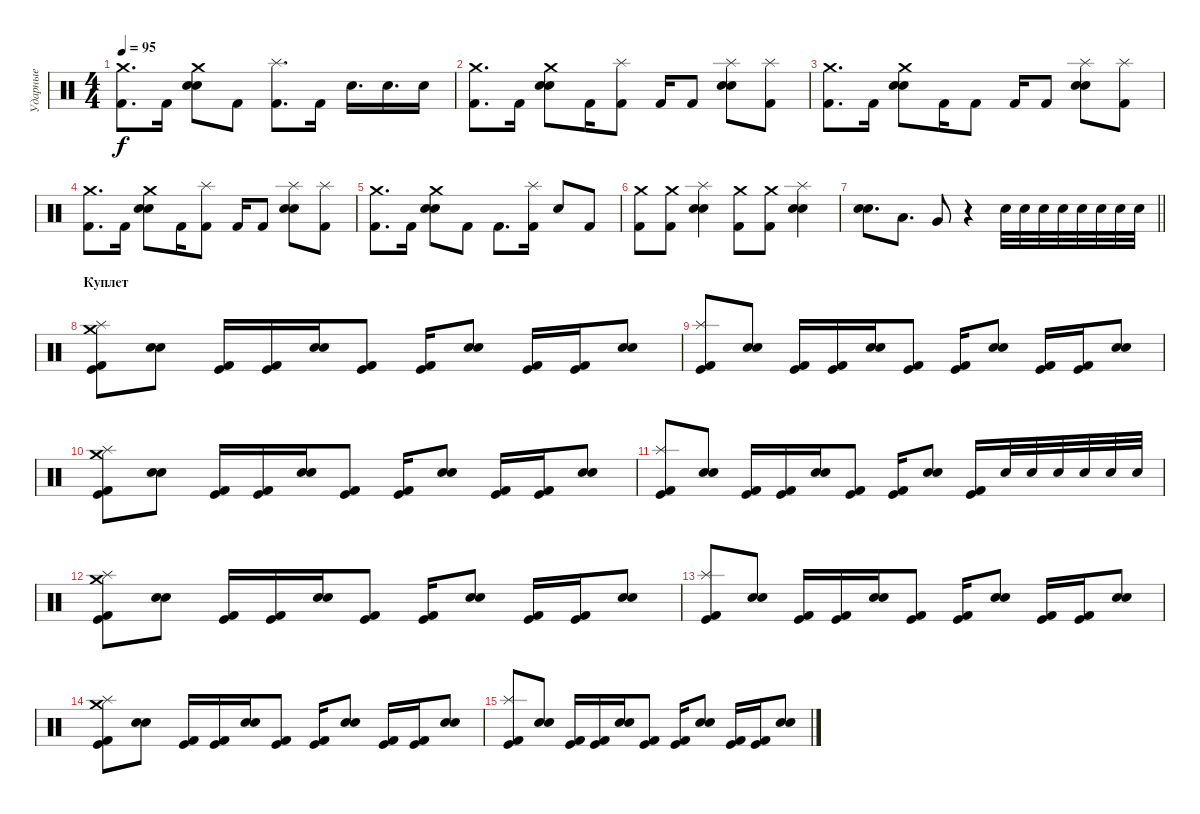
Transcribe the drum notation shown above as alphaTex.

\track ("Ударные" "Ударные") {instrument percussion}
\staff {score}
\articulation defaults
\ts (4 4)
\tempo 95
\clef neutral
\ks c
("Crash medium (hit)" "Kick (hit) 2").8{d dy f} "Kick (hit) 2".16 ("Crash medium (hit)" "Electric Snare (hit)" "Snare (hit) 2").8 "Kick (hit) 2".8 ("Splash (hit)" "Kick (hit) 2").8{d} "Kick (hit) 2".16 "Electric Snare (hit)".16{d} "Electric Snare (hit)".16{d} "Electric Snare (hit)".16 |
("Crash medium (hit)" "Kick (hit) 2").8{d} "Kick (hit) 2".16 ("Crash medium (hit)" "Electric Snare (hit)" "Snare (hit) 2").8 "Kick (hit) 2".16 ("Splash (hit)" "Kick (hit) 2").8 "Kick (hit) 2".16 "Kick (hit) 2".8 ("Splash (hit)" "Electric Snare (hit)" "Snare (hit) 2").8 ("Splash (hit)" "Kick (hit) 2").8 |
("Crash medium (hit)" "Kick (hit) 2").8{d} "Kick (hit) 2".16 ("Crash medium (hit)" "Electric Snare (hit)" "Snare (hit) 2").8 "Kick (hit) 2".16 "Kick (hit) 2".8 "Kick (hit) 2".16 "Kick (hit) 2".8 ("Splash (hit)" "Electric Snare (hit)" "Snare (hit) 2").8 ("Splash (hit)" "Kick (hit) 2").8 |
("Crash medium (hit)" "Kick (hit) 2").8{d} "Kick (hit) 2".16 ("Crash medium (hit)" "Electric Snare (hit)" "Snare (hit) 2").8 "Kick (hit) 2".16 ("Splash (hit)" "Kick (hit) 2").8 "Kick (hit) 2".16 "Kick (hit) 2".8 ("Splash (hit)" "Electric Snare (hit)" "Snare (hit) 2").8 ("Splash (hit)" "Kick (hit) 2").8 |
("Crash medium (hit)" "Kick (hit) 2").8{d} "Kick (hit) 2".16 ("Crash medium (hit)" "Electric Snare (hit)" "Snare (hit) 2").8 "Kick (hit) 2".8 "Kick (hit) 2".8{d} ("Splash (hit)" "Kick (hit) 2").16 "Electric Snare (hit)".8 "Kick (hit) 2".8 |
("Crash medium (hit)" "Kick (hit) 2").8 ("Crash medium (hit)" "Kick (hit) 2").8 ("Splash (hit)" "Electric Snare (hit)" "Snare (hit) 2").4 ("Crash medium (hit)" "Kick (hit) 2").8 ("Crash medium (hit)" "Kick (hit) 2").8 ("Splash (hit)" "Electric Snare (hit)" "Snare (hit) 2").4 |
\barLineRight lightlight
("Electric Snare (hit)" "Snare (hit) 2").8{d} "Low Tom (hit)".8{d} "Very Low Tom (hit)".8 r.4 "Electric Snare (hit)".32 "Electric Snare (hit)".32 "Electric Snare (hit)".32 "Electric Snare (hit)".32 "Electric Snare (hit)".32 "Electric Snare (hit)".32 "Electric Snare (hit)".32 "Electric Snare (hit)".32 |
\section ("" "Куплет")
("Crash medium (hit)" "Splash (hit)" "Kick (hit)" "Kick (hit) 2").8 ("Electric Snare (hit)" "Snare (hit) 2").8 ("Kick (hit)" "Kick (hit) 2").16 ("Kick (hit)" "Kick (hit) 2").16 ("Electric Snare (hit)" "Snare (hit) 2").16 ("Kick (hit)" "Kick (hit) 2").8 ("Kick (hit)" "Kick (hit) 2").16 ("Electric Snare (hit)" "Snare (hit) 2").8 ("Kick (hit)" "Kick (hit) 2").16 ("Kick (hit)" "Kick (hit) 2").16 ("Electric Snare (hit)" "Snare (hit) 2").8 |
("Splash (hit)" "Kick (hit)" "Kick (hit) 2").8 ("Electric Snare (hit)" "Snare (hit) 2").8 ("Kick (hit)" "Kick (hit) 2").16 ("Kick (hit)" "Kick (hit) 2").16 ("Electric Snare (hit)" "Snare (hit) 2").16 ("Kick (hit)" "Kick (hit) 2").8 ("Kick (hit)" "Kick (hit) 2").16 ("Electric Snare (hit)" "Snare (hit) 2").8 ("Kick (hit)" "Kick (hit) 2").16 ("Kick (hit)" "Kick (hit) 2").16 ("Electric Snare (hit)" "Snare (hit) 2").8 |
("Crash medium (hit)" "Splash (hit)" "Kick (hit)" "Kick (hit) 2").8 ("Electric Snare (hit)" "Snare (hit) 2").8 ("Kick (hit)" "Kick (hit) 2").16 ("Kick (hit)" "Kick (hit) 2").16 ("Electric Snare (hit)" "Snare (hit) 2").16 ("Kick (hit)" "Kick (hit) 2").8 ("Kick (hit)" "Kick (hit) 2").16 ("Electric Snare (hit)" "Snare (hit) 2").8 ("Kick (hit)" "Kick (hit) 2").16 ("Kick (hit)" "Kick (hit) 2").16 ("Electric Snare (hit)" "Snare (hit) 2").8 |
("Splash (hit)" "Kick (hit)" "Kick (hit) 2").8 ("Electric Snare (hit)" "Snare (hit) 2").8 ("Kick (hit)" "Kick (hit) 2").16 ("Kick (hit)" "Kick (hit) 2").16 ("Electric Snare (hit)" "Snare (hit) 2").16 ("Kick (hit)" "Kick (hit) 2").8 ("Kick (hit)" "Kick (hit) 2").16 ("Electric Snare (hit)" "Snare (hit) 2").8 ("Kick (hit)" "Kick (hit) 2").16 "Electric Snare (hit)".32 "Electric Snare (hit)".32 "Electric Snare (hit)".32 "Electric Snare (hit)".32 "Electric Snare (hit)".32 "Electric Snare (hit)".32 |
("Crash medium (hit)" "Splash (hit)" "Kick (hit)" "Kick (hit) 2").8 ("Electric Snare (hit)" "Snare (hit) 2").8 ("Kick (hit)" "Kick (hit) 2").16 ("Kick (hit)" "Kick (hit) 2").16 ("Electric Snare (hit)" "Snare (hit) 2").16 ("Kick (hit)" "Kick (hit) 2").8 ("Kick (hit)" "Kick (hit) 2").16 ("Electric Snare (hit)" "Snare (hit) 2").8 ("Kick (hit)" "Kick (hit) 2").16 ("Kick (hit)" "Kick (hit) 2").16 ("Electric Snare (hit)" "Snare (hit) 2").8 |
("Splash (hit)" "Kick (hit)" "Kick (hit) 2").8 ("Electric Snare (hit)" "Snare (hit) 2").8 ("Kick (hit)" "Kick (hit) 2").16 ("Kick (hit)" "Kick (hit) 2").16 ("Electric Snare (hit)" "Snare (hit) 2").16 ("Kick (hit)" "Kick (hit) 2").8 ("Kick (hit)" "Kick (hit) 2").16 ("Electric Snare (hit)" "Snare (hit) 2").8 ("Kick (hit)" "Kick (hit) 2").16 ("Kick (hit)" "Kick (hit) 2").16 ("Electric Snare (hit)" "Snare (hit) 2").8 |
("Crash medium (hit)" "Splash (hit)" "Kick (hit)" "Kick (hit) 2").8 ("Electric Snare (hit)" "Snare (hit) 2").8 ("Kick (hit)" "Kick (hit) 2").16 ("Kick (hit)" "Kick (hit) 2").16 ("Electric Snare (hit)" "Snare (hit) 2").16 ("Kick (hit)" "Kick (hit) 2").8 ("Kick (hit)" "Kick (hit) 2").16 ("Electric Snare (hit)" "Snare (hit) 2").8 ("Kick (hit)" "Kick (hit) 2").16 ("Kick (hit)" "Kick (hit) 2").16 ("Electric Snare (hit)" "Snare (hit) 2").8 |
("Splash (hit)" "Kick (hit)" "Kick (hit) 2").8 ("Electric Snare (hit)" "Snare (hit) 2").8 ("Kick (hit)" "Kick (hit) 2").16 ("Kick (hit)" "Kick (hit) 2").16 ("Electric Snare (hit)" "Snare (hit) 2").16 ("Kick (hit)" "Kick (hit) 2").8 ("Kick (hit)" "Kick (hit) 2").16 ("Electric Snare (hit)" "Snare (hit) 2").8 ("Kick (hit)" "Kick (hit) 2").16 ("Kick (hit)" "Kick (hit) 2").16 ("Electric Snare (hit)" "Snare (hit) 2").8
